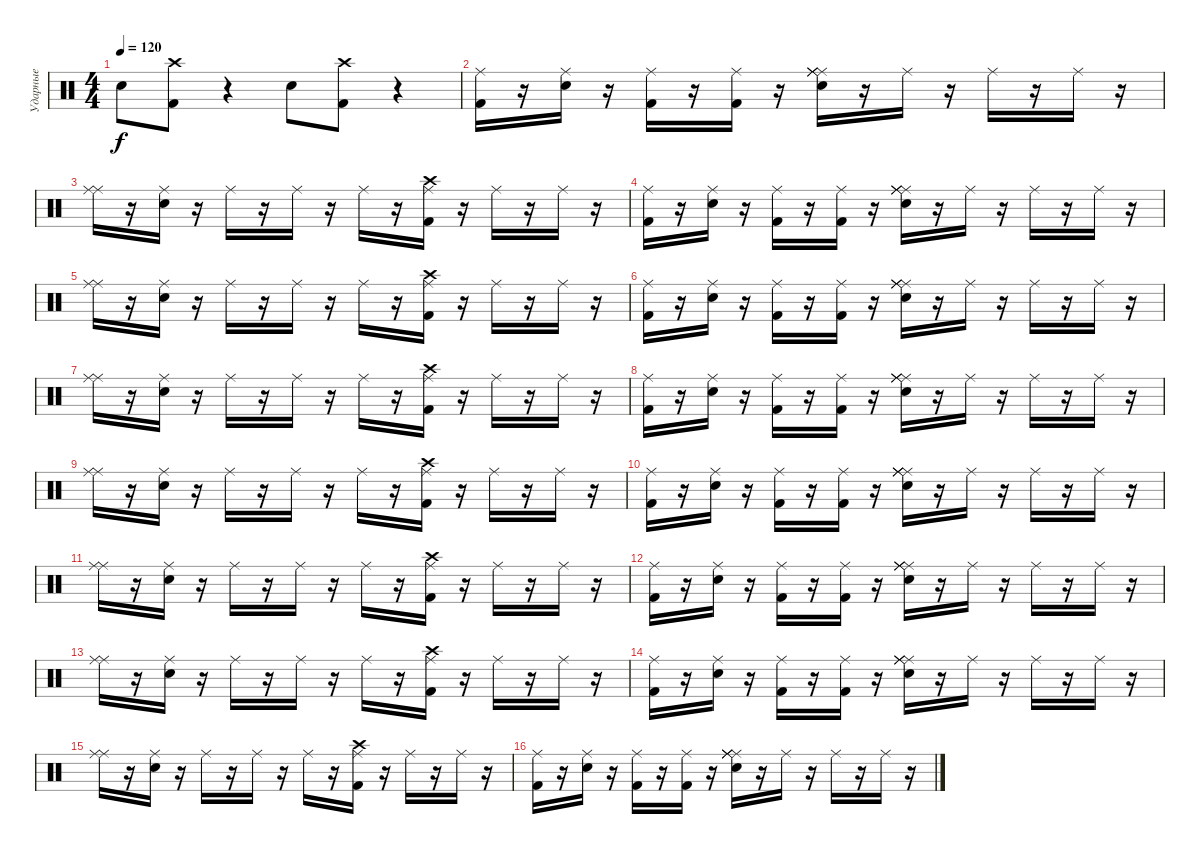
\track ("Ударные" "Ударные") {instrument percussion}
\staff {score}
\articulation defaults
\ts (4 4)
\tempo 120
\clef neutral
\ks c "Snare (hit) 2".8{dy f}
("Kick (hit) 2" "Crash high (hit)").8 r.4 "Snare (hit) 2".8 ("Kick (hit) 2" "Crash high (hit)").8 r.4 |
("Ride (middle)" "Kick (hit) 2").16 r.16 ("Ride (middle)" "Snare (hit) 2").16 r.16 ("Ride (middle)" "Kick (hit) 2").16 r.16 ("Ride (middle)" "Kick (hit) 2").16 r.16 ("Ride (middle)" "Ride (middle)" "Ride (middle)" "Ride (middle)" "Snare (hit) 2").16 r.16 "Ride (middle)".16 r.16 "Ride (middle)".16 r.16 "Ride (middle)".16 r.16 |
("Ride (middle)" "Ride (middle)").16 r.16 ("Ride (middle)" "Snare (hit) 2").16 r.16 "Ride (middle)".16 r.16 "Ride (middle)".16 r.16 "Ride (middle)".16 r.16 ("Ride (middle)" "Kick (hit) 2" "Crash high (hit)").16 r.16 "Ride (middle)".16 r.16 "Ride (middle)".16 r.16 |
("Ride (middle)" "Kick (hit) 2").16 r.16 ("Ride (middle)" "Snare (hit) 2").16 r.16 ("Ride (middle)" "Kick (hit) 2").16 r.16 ("Ride (middle)" "Kick (hit) 2").16 r.16 ("Ride (middle)" "Ride (middle)" "Ride (middle)" "Ride (middle)" "Snare (hit) 2").16 r.16 "Ride (middle)".16 r.16 "Ride (middle)".16 r.16 "Ride (middle)".16 r.16 |
("Ride (middle)" "Ride (middle)").16 r.16 ("Ride (middle)" "Snare (hit) 2").16 r.16 "Ride (middle)".16 r.16 "Ride (middle)".16 r.16 "Ride (middle)".16 r.16 ("Ride (middle)" "Kick (hit) 2" "Crash high (hit)").16 r.16 "Ride (middle)".16 r.16 "Ride (middle)".16 r.16 |
("Ride (middle)" "Kick (hit) 2").16 r.16 ("Ride (middle)" "Snare (hit) 2").16 r.16 ("Ride (middle)" "Kick (hit) 2").16 r.16 ("Ride (middle)" "Kick (hit) 2").16 r.16 ("Ride (middle)" "Ride (middle)" "Ride (middle)" "Ride (middle)" "Snare (hit) 2").16 r.16 "Ride (middle)".16 r.16 "Ride (middle)".16 r.16 "Ride (middle)".16 r.16 |
("Ride (middle)" "Ride (middle)").16 r.16 ("Ride (middle)" "Snare (hit) 2").16 r.16 "Ride (middle)".16 r.16 "Ride (middle)".16 r.16 "Ride (middle)".16 r.16 ("Ride (middle)" "Kick (hit) 2" "Crash high (hit)").16 r.16 "Ride (middle)".16 r.16 "Ride (middle)".16 r.16 |
("Ride (middle)" "Kick (hit) 2").16 r.16 ("Ride (middle)" "Snare (hit) 2").16 r.16 ("Ride (middle)" "Kick (hit) 2").16 r.16 ("Ride (middle)" "Kick (hit) 2").16 r.16 ("Ride (middle)" "Ride (middle)" "Ride (middle)" "Ride (middle)" "Snare (hit) 2").16 r.16 "Ride (middle)".16 r.16 "Ride (middle)".16 r.16 "Ride (middle)".16 r.16 |
("Ride (middle)" "Ride (middle)").16 r.16 ("Ride (middle)" "Snare (hit) 2").16 r.16 "Ride (middle)".16 r.16 "Ride (middle)".16 r.16 "Ride (middle)".16 r.16 ("Ride (middle)" "Kick (hit) 2" "Crash high (hit)").16 r.16 "Ride (middle)".16 r.16 "Ride (middle)".16 r.16 |
("Ride (middle)" "Kick (hit) 2").16 r.16 ("Ride (middle)" "Snare (hit) 2").16 r.16 ("Ride (middle)" "Kick (hit) 2").16 r.16 ("Ride (middle)" "Kick (hit) 2").16 r.16 ("Ride (middle)" "Ride (middle)" "Ride (middle)" "Ride (middle)" "Snare (hit) 2").16 r.16 "Ride (middle)".16 r.16 "Ride (middle)".16 r.16 "Ride (middle)".16 r.16 |
("Ride (middle)" "Ride (middle)").16 r.16 ("Ride (middle)" "Snare (hit) 2").16 r.16 "Ride (middle)".16 r.16 "Ride (middle)".16 r.16 "Ride (middle)".16 r.16 ("Ride (middle)" "Kick (hit) 2" "Crash high (hit)").16 r.16 "Ride (middle)".16 r.16 "Ride (middle)".16 r.16 |
("Ride (middle)" "Kick (hit) 2").16 r.16 ("Ride (middle)" "Snare (hit) 2").16 r.16 ("Ride (middle)" "Kick (hit) 2").16 r.16 ("Ride (middle)" "Kick (hit) 2").16 r.16 ("Ride (middle)" "Ride (middle)" "Ride (middle)" "Ride (middle)" "Snare (hit) 2").16 r.16 "Ride (middle)".16 r.16 "Ride (middle)".16 r.16 "Ride (middle)".16 r.16 |
("Ride (middle)" "Ride (middle)").16 r.16 ("Ride (middle)" "Snare (hit) 2").16 r.16 "Ride (middle)".16 r.16 "Ride (middle)".16 r.16 "Ride (middle)".16 r.16 ("Ride (middle)" "Kick (hit) 2" "Crash high (hit)").16 r.16 "Ride (middle)".16 r.16 "Ride (middle)".16 r.16 |
("Ride (middle)" "Kick (hit) 2").16 r.16 ("Ride (middle)" "Snare (hit) 2").16 r.16 ("Ride (middle)" "Kick (hit) 2").16 r.16 ("Ride (middle)" "Kick (hit) 2").16 r.16 ("Ride (middle)" "Ride (middle)" "Ride (middle)" "Ride (middle)" "Snare (hit) 2").16 r.16 "Ride (middle)".16 r.16 "Ride (middle)".16 r.16 "Ride (middle)".16 r.16 |
("Ride (middle)" "Ride (middle)").16 r.16 ("Ride (middle)" "Snare (hit) 2").16 r.16 "Ride (middle)".16 r.16 "Ride (middle)".16 r.16 "Ride (middle)".16 r.16 ("Ride (middle)" "Kick (hit) 2" "Crash high (hit)").16 r.16 "Ride (middle)".16 r.16 "Ride (middle)".16 r.16 |
("Ride (middle)" "Kick (hit) 2").16 r.16 ("Ride (middle)" "Snare (hit) 2").16 r.16 ("Ride (middle)" "Kick (hit) 2").16 r.16 ("Ride (middle)" "Kick (hit) 2").16 r.16 ("Ride (middle)" "Ride (middle)" "Ride (middle)" "Ride (middle)" "Snare (hit) 2").16 r.16 "Ride (middle)".16 r.16 "Ride (middle)".16 r.16 "Ride (middle)".16 r.16
